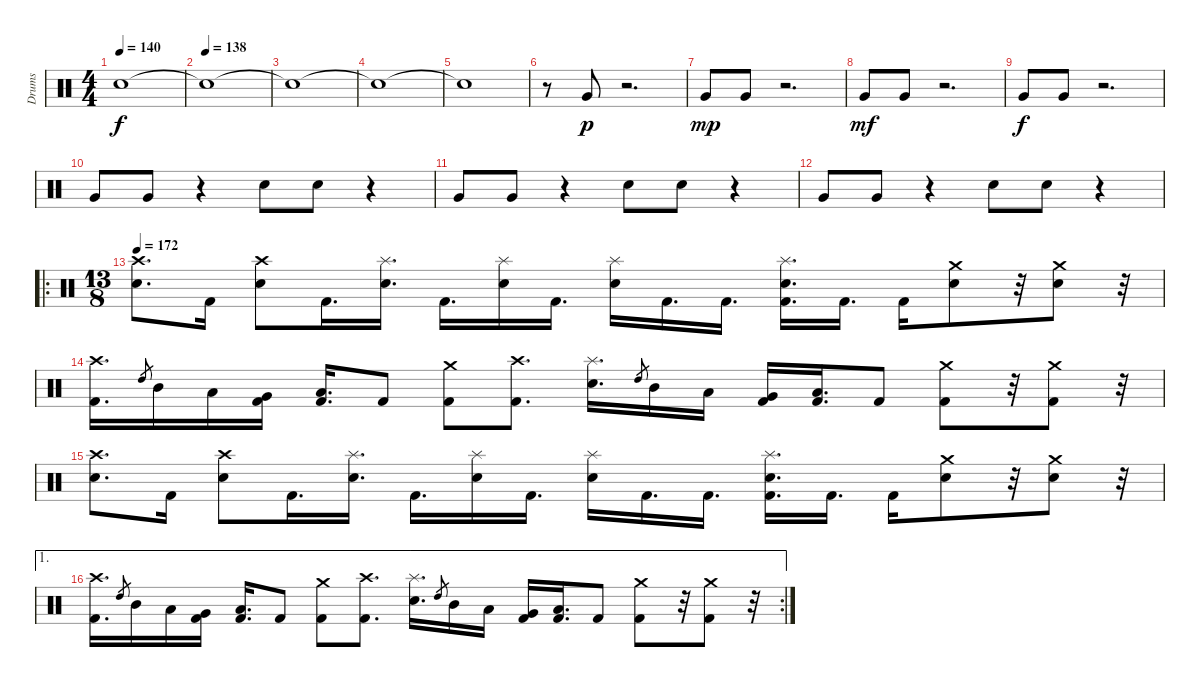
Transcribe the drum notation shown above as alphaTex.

\track ("Drums" "Drums") {instrument percussion}
\staff {score}
\articulation defaults
\ts (4 4)
\tempo 140
\clef neutral
\ks c "Snare (hit)"{t}.1{dy f}
|
\tempo (138)
"Snare (hit)"{t}.1 |
"Snare (hit)"{t}.1 |
"Snare (hit)"{t}.1 |
"Snare (hit)"{t}.1 |
r.8 "Very Low Tom (hit)".8{dy p} r.2{d} |
"Very Low Tom (hit)".8{dy mp} "Very Low Tom (hit)".8 r.2{d} |
"Very Low Tom (hit)".8{dy mf} "Very Low Tom (hit)".8 r.2{d} |
"Very Low Tom (hit)".8{dy f} "Very Low Tom (hit)".8 r.2{d} |
"Very Low Tom (hit)".8 "Very Low Tom (hit)".8 r.4 "Electric Snare (hit)".8 "Electric Snare (hit)".8 r.4 |
"Very Low Tom (hit)".8 "Very Low Tom (hit)".8 r.4 "Electric Snare (hit)".8 "Electric Snare (hit)".8 r.4 |
"Very Low Tom (hit)".8 "Very Low Tom (hit)".8 r.4 "Electric Snare (hit)".8 "Electric Snare (hit)".8 r.4 |
\ro
\ts (13 8)
\tempo 172
("Crash high (hit)" "Electric Snare (hit)").8{d} "Kick (hit) 2".16 ("Crash high (hit)" "Electric Snare (hit)").8 "Kick (hit) 2".16{d} ("Splash (hit)" "Electric Snare (hit)").16{d} "Kick (hit) 2".16{d} ("Splash (hit)" "Electric Snare (hit)").16 "Kick (hit) 2".16{d} ("Splash (hit)" "Electric Snare (hit)").16 "Kick (hit) 2".16{d} "Kick (hit) 2".16{d} ("Splash (hit)" "Electric Snare (hit)" "Kick (hit) 2").16{d} "Kick (hit) 2".16{d} "Kick (hit) 2".16 ("Crash medium (hit)" "Electric Snare (hit)").8 r.32 ("Crash medium (hit)" "Electric Snare (hit)").8 r.32 |
("Crash high (hit)" "Kick (hit) 2").16{d} "High Tom (hit)".8{gr} "Mid Tom (hit)".16 "Low Tom (hit)".16 ("Very Low Tom (hit)" "Kick (hit) 2").16 ("Low Floor Tom (hit)" "Kick (hit) 2").16{d} "Kick (hit) 2".8 ("Crash medium (hit)" "Kick (hit) 2").8 ("Crash high (hit)" "Kick (hit) 2").8{d} ("Splash (hit)" "Electric Snare (hit)").16{d} "High Tom (hit)".8{gr} "Mid Tom (hit)".16 "Low Tom (hit)".16 ("Very Low Tom (hit)" "Kick (hit) 2").16 ("Low Floor Tom (hit)" "Kick (hit) 2").16{d} "Kick (hit) 2".8 ("Crash medium (hit)" "Kick (hit) 2").8 r.32 ("Crash medium (hit)" "Kick (hit) 2").8 r.32 |
("Crash high (hit)" "Electric Snare (hit)").8{d} "Kick (hit) 2".16 ("Crash high (hit)" "Electric Snare (hit)").8 "Kick (hit) 2".16{d} ("Splash (hit)" "Electric Snare (hit)").16{d} "Kick (hit) 2".16{d} ("Splash (hit)" "Electric Snare (hit)").16 "Kick (hit) 2".16{d} ("Splash (hit)" "Electric Snare (hit)").16 "Kick (hit) 2".16{d} "Kick (hit) 2".16{d} ("Splash (hit)" "Electric Snare (hit)" "Kick (hit) 2").16{d} "Kick (hit) 2".16{d} "Kick (hit) 2".16 ("Crash medium (hit)" "Electric Snare (hit)").8 r.32 ("Crash medium (hit)" "Electric Snare (hit)").8 r.32 |
\ae 1
\rc 2
("Crash high (hit)" "Kick (hit) 2").16{d} "High Tom (hit)".8{gr} "Mid Tom (hit)".16 "Low Tom (hit)".16 ("Very Low Tom (hit)" "Kick (hit) 2").16 ("Low Floor Tom (hit)" "Kick (hit) 2").16{d} "Kick (hit) 2".8 ("Crash medium (hit)" "Kick (hit) 2").8 ("Crash high (hit)" "Kick (hit) 2").8{d} ("Splash (hit)" "Electric Snare (hit)").16{d} "High Tom (hit)".8{gr} "Mid Tom (hit)".16 "Low Tom (hit)".16 ("Very Low Tom (hit)" "Kick (hit) 2").16 ("Low Floor Tom (hit)" "Kick (hit) 2").16{d} "Kick (hit) 2".8 ("Crash medium (hit)" "Kick (hit) 2").8 r.32 ("Crash medium (hit)" "Kick (hit) 2").8 r.32
